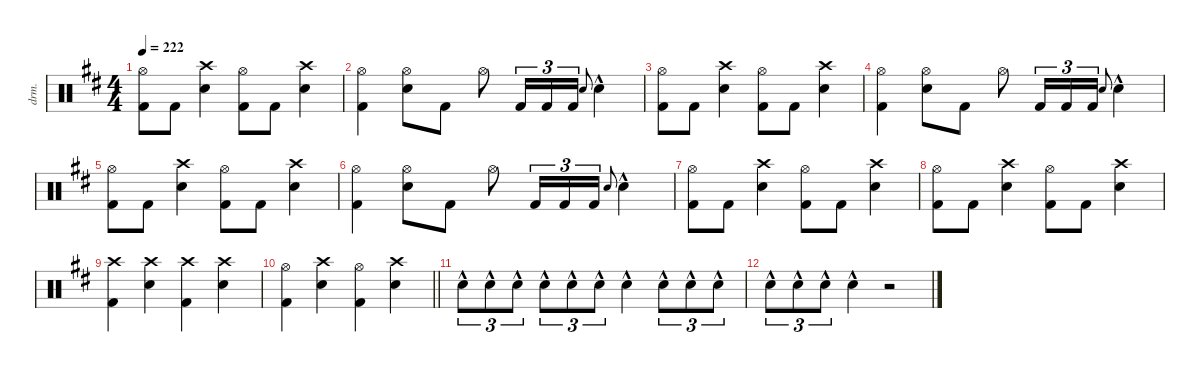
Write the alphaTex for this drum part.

\defaultSystemsLayout 4
\hideDynamics
\bracketExtendMode nobrackets
\otherSystemsTrackNameOrientation horizontal
\track ("Lars Ulrich" "drm.") {defaultSystemsLayout 4 instrument percussion}
\staff {score}
\articulation defaults
\ts (4 4)
\tempo 222
\clef neutral
\ks bminor
("Hi-Hat (open)"{acc forcenatural} "Kick (hit) 2"{acc forcenatural}).8{dy f beam Down} "Kick (hit) 2"{acc forcenatural}.8{beam Down} ("Crash high (hit)"{acc forcenatural} "Snare (hit) 2"{acc forcenatural}).4{beam Down} ("Hi-Hat (open)"{acc forcenatural} "Kick (hit) 2"{acc forcenatural}).8{beam Down} "Kick (hit) 2"{acc forcenatural}.8{beam Down} ("Crash high (hit)"{acc forcenatural} "Snare (hit) 2"{acc forcenatural}).4{beam Down} |
("Hi-Hat (open)"{acc forcenatural} "Kick (hit) 2"{acc forcenatural}).4{beam Down} ("Hi-Hat (open)"{acc forcenatural} "Snare (hit) 2"{acc forcenatural}).8{beam Down} "Kick (hit) 2"{acc forcenatural}.8{beam Down} "Hi-Hat (open)"{acc forcenatural}.8{beam Down} "Kick (hit) 2"{acc forcenatural}.16{tu (3 2) beam Up} "Kick (hit) 2"{acc forcenatural}.16{tu (3 2) beam Up} "Kick (hit) 2"{acc forcenatural}.16{tu (3 2) beam Up} "Electric Snare (hit)"{acc forcenatural}.8{gr onbeat dy mp beam Up} "Snare (hit) 2"{hac acc forcenatural}.4{dy f beam Down} |
("Hi-Hat (open)"{acc forcenatural} "Kick (hit) 2"{acc forcenatural}).8{beam Down} "Kick (hit) 2"{acc forcenatural}.8{beam Down} ("Crash high (hit)"{acc forcenatural} "Snare (hit) 2"{acc forcenatural}).4{beam Down} ("Hi-Hat (open)"{acc forcenatural} "Kick (hit) 2"{acc forcenatural}).8{beam Down} "Kick (hit) 2"{acc forcenatural}.8{beam Down} ("Crash high (hit)"{acc forcenatural} "Snare (hit) 2"{acc forcenatural}).4{beam Down} |
("Hi-Hat (open)"{acc forcenatural} "Kick (hit) 2"{acc forcenatural}).4{beam Down} ("Hi-Hat (open)"{acc forcenatural} "Snare (hit) 2"{acc forcenatural}).8{beam Down} "Kick (hit) 2"{acc forcenatural}.8{beam Down} "Hi-Hat (open)"{acc forcenatural}.8{beam Down} "Kick (hit) 2"{acc forcenatural}.16{tu (3 2) beam Up} "Kick (hit) 2"{acc forcenatural}.16{tu (3 2) beam Up} "Kick (hit) 2"{acc forcenatural}.16{tu (3 2) beam Up} "Electric Snare (hit)"{acc forcenatural}.8{gr onbeat dy mp beam Up} "Snare (hit) 2"{hac acc forcenatural}.4{dy f beam Down} |
("Hi-Hat (open)"{acc forcenatural} "Kick (hit) 2"{acc forcenatural}).8{beam Down} "Kick (hit) 2"{acc forcenatural}.8{beam Down} ("Crash high (hit)"{acc forcenatural} "Snare (hit) 2"{acc forcenatural}).4{beam Down} ("Hi-Hat (open)"{acc forcenatural} "Kick (hit) 2"{acc forcenatural}).8{beam Down} "Kick (hit) 2"{acc forcenatural}.8{beam Down} ("Crash high (hit)"{acc forcenatural} "Snare (hit) 2"{acc forcenatural}).4{beam Down} |
("Hi-Hat (open)"{acc forcenatural} "Kick (hit) 2"{acc forcenatural}).4{beam Down} ("Hi-Hat (open)"{acc forcenatural} "Snare (hit) 2"{acc forcenatural}).8{beam Down} "Kick (hit) 2"{acc forcenatural}.8{beam Down} "Hi-Hat (open)"{acc forcenatural}.8{beam Down} "Kick (hit) 2"{acc forcenatural}.16{tu (3 2) beam Up} "Kick (hit) 2"{acc forcenatural}.16{tu (3 2) beam Up} "Kick (hit) 2"{acc forcenatural}.16{tu (3 2) beam Up} "Electric Snare (hit)"{acc forcenatural}.8{gr onbeat dy mp beam Up} "Snare (hit) 2"{hac acc forcenatural}.4{dy f beam Down} |
("Hi-Hat (open)"{acc forcenatural} "Kick (hit) 2"{acc forcenatural}).8{beam Down} "Kick (hit) 2"{acc forcenatural}.8{beam Down} ("Crash high (hit)"{acc forcenatural} "Snare (hit) 2"{acc forcenatural}).4{beam Down} ("Hi-Hat (open)"{acc forcenatural} "Kick (hit) 2"{acc forcenatural}).8{beam Down} "Kick (hit) 2"{acc forcenatural}.8{beam Down} ("Crash high (hit)"{acc forcenatural} "Snare (hit) 2"{acc forcenatural}).4{beam Down} |
("Hi-Hat (open)"{acc forcenatural} "Kick (hit) 2"{acc forcenatural}).8{beam Down} "Kick (hit) 2"{acc forcenatural}.8{beam Down} ("Crash high (hit)"{acc forcenatural} "Snare (hit) 2"{acc forcenatural}).4{beam Down} ("Hi-Hat (open)"{acc forcenatural} "Kick (hit) 2"{acc forcenatural}).8{beam Down} "Kick (hit) 2"{acc forcenatural}.8{beam Down} ("Crash high (hit)"{acc forcenatural} "Snare (hit) 2"{acc forcenatural}).4{beam Down} |
("Crash high (hit)"{acc forcenatural} "Kick (hit) 2"{acc forcenatural}).4{beam Down} ("Crash high (hit)"{acc forcenatural} "Snare (hit) 2"{acc forcenatural}).4{beam Down} ("Crash high (hit)"{acc forcenatural} "Kick (hit) 2"{acc forcenatural}).4{beam Down} ("Crash high (hit)"{acc forcenatural} "Snare (hit) 2"{acc forcenatural}).4{beam Down} |
\barLineRight lightlight
("Hi-Hat (open)"{acc forcenatural} "Kick (hit) 2"{acc forcenatural}).4{beam Down} ("Crash high (hit)"{acc forcenatural} "Snare (hit) 2"{acc forcenatural}).4{beam Down} ("Hi-Hat (open)"{acc forcenatural} "Kick (hit) 2"{acc forcenatural}).4{beam Down} ("Crash high (hit)"{acc forcenatural} "Snare (hit) 2"{acc forcenatural}).4{beam Down} |
"Snare (hit) 2"{hac acc forcenatural}.8{tu (3 2) beam Down} "Snare (hit) 2"{hac acc forcenatural}.8{tu (3 2) beam Down} "Snare (hit) 2"{hac acc forcenatural}.8{tu (3 2) beam Down} "Snare (hit) 2"{hac acc forcenatural}.8{tu (3 2) beam Down} "Snare (hit) 2"{hac acc forcenatural}.8{tu (3 2) beam Down} "Snare (hit) 2"{hac acc forcenatural}.8{tu (3 2) beam Down} "Snare (hit) 2"{hac acc forcenatural}.4{beam Down} "Snare (hit) 2"{hac acc forcenatural}.8{tu (3 2) beam Down} "Snare (hit) 2"{hac acc forcenatural}.8{tu (3 2) beam Down} "Snare (hit) 2"{hac acc forcenatural}.8{tu (3 2) beam Down} |
"Snare (hit) 2"{hac acc forcenatural}.8{tu (3 2) beam Down} "Snare (hit) 2"{hac acc forcenatural}.8{tu (3 2) beam Down} "Snare (hit) 2"{hac acc forcenatural}.8{tu (3 2) beam Down} "Snare (hit) 2"{hac acc forcenatural}.4{beam Down} r.2{beam Down}
